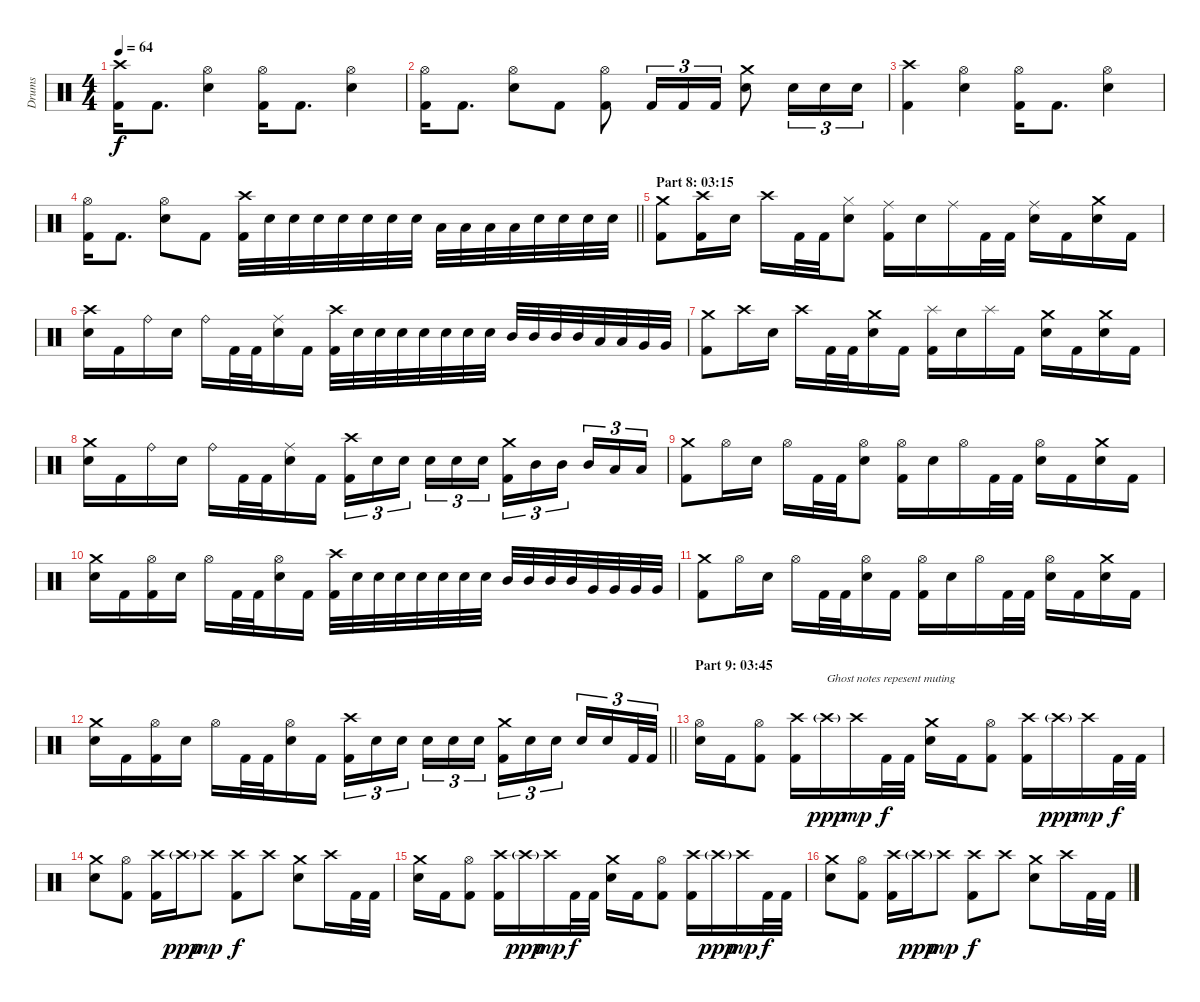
\track ("Drums" "Drums") {instrument percussion}
\staff {score}
\articulation defaults
\ts (4 4)
\tempo 64
\clef neutral
\ks c
("Crash high (hit)" "Kick (hit) 2").16{dy f} "Kick (hit) 2".8{d} ("Hi-Hat (open)" "Electric Snare (hit)").4 ("Hi-Hat (open)" "Kick (hit) 2").16 "Kick (hit) 2".8{d} ("Hi-Hat (open)" "Electric Snare (hit)").4 |
("Hi-Hat (open)" "Kick (hit) 2").16 "Kick (hit) 2".8{d} ("Hi-Hat (open)" "Electric Snare (hit)").8 "Kick (hit) 2".8 ("Hi-Hat (open)" "Kick (hit) 2").8 "Kick (hit) 2".16{tu (3 2)} "Kick (hit) 2".16{tu (3 2)} "Kick (hit) 2".16{tu (3 2)} ("Crash medium (hit)" "Electric Snare (hit)").8 "Electric Snare (hit)".16{tu (3 2)} "Electric Snare (hit)".16{tu (3 2)} "Electric Snare (hit)".16{tu (3 2)} |
("Crash high (hit)" "Kick (hit) 2").4 ("Hi-Hat (open)" "Electric Snare (hit)").4 ("Hi-Hat (open)" "Kick (hit) 2").16 "Kick (hit) 2".8{d} ("Hi-Hat (open)" "Electric Snare (hit)").4 |
\barLineRight lightlight
("Hi-Hat (open)" "Kick (hit) 2").16 "Kick (hit) 2".8{d} ("Hi-Hat (open)" "Electric Snare (hit)").8 "Kick (hit) 2".8 ("Crash high (hit)" "Kick (hit) 2").32 "Electric Snare (hit)".32 "Electric Snare (hit)".32 "Electric Snare (hit)".32 "Electric Snare (hit)".32 "Electric Snare (hit)".32 "Electric Snare (hit)".32 "Electric Snare (hit)".32 "Low Tom (hit)".32 "Low Tom (hit)".32 "Low Tom (hit)".32 "Low Tom (hit)".32 "Electric Snare (hit)".32 "Electric Snare (hit)".32 "Electric Snare (hit)".32 "Electric Snare (hit)".32 |
\section ("" "Part 8: 03:15")
("Crash medium (hit)" "Kick (hit) 2").8 ("Crash high (hit)" "Kick (hit) 2").16 "Electric Snare (hit)".16 "Crash high (hit)".16 "Kick (hit) 2".32 "Kick (hit) 2".32 ("Hi-Hat (closed)" "Electric Snare (hit)").8 ("Ride (middle)" "Kick (hit) 2").16 "Electric Snare (hit)".16 "Ride (middle)".16 "Kick (hit) 2".32 "Kick (hit) 2".32 ("Ride (middle)" "Electric Snare (hit)").16 "Kick (hit) 2".16 ("Crash medium (hit)" "Electric Snare (hit)").16 "Kick (hit) 2".16 |
("Crash high (hit)" "Electric Snare (hit)").16 "Kick (hit) 2".16 "Ride (bell)".16 "Electric Snare (hit)".16 "Ride (bell)".16 "Kick (hit) 2".32 "Kick (hit) 2".32 ("Ride (middle)" "Electric Snare (hit)").16 "Kick (hit) 2".16 ("Crash high (hit)" "Kick (hit) 2").32 "Electric Snare (hit)".32 "Electric Snare (hit)".32 "Electric Snare (hit)".32 "Electric Snare (hit)".32 "Electric Snare (hit)".32 "Electric Snare (hit)".32 "Electric Snare (hit)".32 "Mid Tom (hit)".32 "Mid Tom (hit)".32 "Mid Tom (hit)".32 "Mid Tom (hit)".32 "Low Tom (hit)".32 "Low Tom (hit)".32 "Very Low Tom (hit)".32 "Very Low Tom (hit)".32 |
("Crash medium (hit)" "Kick (hit) 2").8 "Crash high (hit)".16 "Electric Snare (hit)".16 "Crash high (hit)".16 "Kick (hit) 2".32 "Kick (hit) 2".32 ("Crash medium (hit)" "Electric Snare (hit)").16 "Kick (hit) 2".16 ("Splash (hit)" "Kick (hit) 2").16 "Electric Snare (hit)".16 "Splash (hit)".16 "Kick (hit) 2".16 ("Crash medium (hit)" "Electric Snare (hit)").16 "Kick (hit) 2".16 ("Crash medium (hit)" "Electric Snare (hit)").16 "Kick (hit) 2".16 |
("Crash medium (hit)" "Electric Snare (hit)").16 "Kick (hit) 2".16 "Ride (bell)".16 "Electric Snare (hit)".16 "Ride (bell)".16 "Kick (hit) 2".32 "Kick (hit) 2".32 ("Ride (middle)" "Electric Snare (hit)").16 "Kick (hit) 2".16 ("Crash high (hit)" "Kick (hit) 2").16{tu (3 2)} "Electric Snare (hit)".16{tu (3 2)} "Electric Snare (hit)".16{tu (3 2) beam splitsecondary} "Electric Snare (hit)".16{tu (3 2)} "Electric Snare (hit)".16{tu (3 2)} "Electric Snare (hit)".16{tu (3 2)} ("Crash medium (hit)" "Kick (hit) 2").16{tu (3 2)} "Mid Tom (hit)".16{tu (3 2)} "Mid Tom (hit)".16{tu (3 2) beam splitsecondary} "Mid Tom (hit)".16{tu (3 2)} "Low Tom (hit)".16{tu (3 2)} "Low Tom (hit)".16{tu (3 2)} |
("Crash medium (hit)" "Kick (hit) 2").8 "Hi-Hat (open)".16 "Electric Snare (hit)".16 "Hi-Hat (open)".16 "Kick (hit) 2".32 "Kick (hit) 2".32 ("Hi-Hat (open)" "Electric Snare (hit)").8 ("Hi-Hat (open)" "Kick (hit) 2").16 "Electric Snare (hit)".16 "Hi-Hat (open)".16 "Kick (hit) 2".32 "Kick (hit) 2".32 ("Hi-Hat (open)" "Electric Snare (hit)").16 "Kick (hit) 2".16 ("Crash medium (hit)" "Electric Snare (hit)").16 "Kick (hit) 2".16 |
("Crash medium (hit)" "Electric Snare (hit)").16 "Kick (hit) 2".16 ("Hi-Hat (open)" "Kick (hit) 2").16 "Electric Snare (hit)".16 "Hi-Hat (open)".16 "Kick (hit) 2".32 "Kick (hit) 2".32 ("Hi-Hat (open)" "Electric Snare (hit)").16 "Kick (hit) 2".16 ("Crash high (hit)" "Kick (hit) 2").32 "Electric Snare (hit)".32 "Electric Snare (hit)".32 "Electric Snare (hit)".32 "Electric Snare (hit)".32 "Electric Snare (hit)".32 "Electric Snare (hit)".32 "Electric Snare (hit)".32 "Mid Tom (hit)".32 "Mid Tom (hit)".32 "Mid Tom (hit)".32 "Mid Tom (hit)".32 "Very Low Tom (hit)".32 "Very Low Tom (hit)".32 "Very Low Tom (hit)".32 "Very Low Tom (hit)".32 |
("Crash medium (hit)" "Kick (hit) 2").8 "Hi-Hat (open)".16 "Electric Snare (hit)".16 "Hi-Hat (open)".16 "Kick (hit) 2".32 "Kick (hit) 2".32 ("Hi-Hat (open)" "Electric Snare (hit)").16 "Kick (hit) 2".16 ("Hi-Hat (open)" "Kick (hit) 2").16 "Electric Snare (hit)".16 "Hi-Hat (open)".16 "Kick (hit) 2".32 "Kick (hit) 2".32 ("Hi-Hat (open)" "Electric Snare (hit)").16 "Kick (hit) 2".16 ("Crash medium (hit)" "Electric Snare (hit)").16 "Kick (hit) 2".16 |
\barLineRight lightlight
("Crash medium (hit)" "Electric Snare (hit)").16 "Kick (hit) 2".16 ("Hi-Hat (open)" "Kick (hit) 2").16 "Electric Snare (hit)".16 "Hi-Hat (open)".16 "Kick (hit) 2".32 "Kick (hit) 2".32 ("Hi-Hat (open)" "Electric Snare (hit)").16 "Kick (hit) 2".16 ("Crash high (hit)" "Kick (hit) 2").16{tu (3 2)} "Electric Snare (hit)".16{tu (3 2)} "Electric Snare (hit)".16{tu (3 2) beam splitsecondary} "Electric Snare (hit)".16{tu (3 2)} "Electric Snare (hit)".16{tu (3 2)} "Electric Snare (hit)".16{tu (3 2)} ("Crash medium (hit)" "Kick (hit) 2").16{tu (3 2)} "Electric Snare (hit)".16{tu (3 2)} "Electric Snare (hit)".16{tu (3 2) beam splitsecondary} "Electric Snare (hit)".16{tu (3 2)} "Electric Snare (hit)".16{tu (3 2)} "Kick (hit) 2".32{tu (3 2)} "Kick (hit) 2".32{tu (3 2)} |
\section ("" "Part 9: 03:45")
("Hi-Hat (open)" "Electric Snare (hit)").16 "Kick (hit) 2".16 ("Hi-Hat (open)" "Kick (hit) 2").8 ("Crash high (hit)" "Kick (hit) 2").16 "Crash high (hit)"{g}.16{txt "Ghost notes repesent muting" dy ppp} "Crash high (hit)".16{dy mp} "Kick (hit) 2".32{dy f} "Kick (hit) 2".32 ("Crash medium (hit)" "Electric Snare (hit)").16 "Kick (hit) 2".16 ("Hi-Hat (open)" "Kick (hit) 2").8 ("Crash high (hit)" "Kick (hit) 2").16 "Crash high (hit)"{g}.16{dy ppp} "Crash high (hit)".16{dy mp} "Kick (hit) 2".32{dy f} "Kick (hit) 2".32 |
("Crash medium (hit)" "Electric Snare (hit)").8 ("Hi-Hat (open)" "Kick (hit) 2").8 ("Crash high (hit)" "Kick (hit) 2").16 "Crash high (hit)"{g}.16{dy ppp} "Crash high (hit)".8{dy mp} ("Crash high (hit)" "Kick (hit) 2").8{dy f} "Crash high (hit)".8 ("Crash medium (hit)" "Electric Snare (hit)").8 "Crash high (hit)".16 "Kick (hit) 2".32 "Kick (hit) 2".32 |
("Crash medium (hit)" "Electric Snare (hit)").16 "Kick (hit) 2".16 ("Hi-Hat (open)" "Kick (hit) 2").8 ("Crash high (hit)" "Kick (hit) 2").16 "Crash high (hit)"{g}.16{dy ppp} "Crash high (hit)".16{dy mp} "Kick (hit) 2".32{dy f} "Kick (hit) 2".32 ("Crash medium (hit)" "Electric Snare (hit)").16 "Kick (hit) 2".16 ("Hi-Hat (open)" "Kick (hit) 2").8 ("Crash high (hit)" "Kick (hit) 2").16 "Crash high (hit)"{g}.16{dy ppp} "Crash high (hit)".16{dy mp} "Kick (hit) 2".32{dy f} "Kick (hit) 2".32 |
("Crash medium (hit)" "Electric Snare (hit)").8 ("Hi-Hat (open)" "Kick (hit) 2").8 ("Crash high (hit)" "Kick (hit) 2").16 "Crash high (hit)"{g}.16{dy ppp} "Crash high (hit)".8{dy mp} ("Crash high (hit)" "Kick (hit) 2").8{dy f} "Crash high (hit)".8 ("Crash medium (hit)" "Electric Snare (hit)").8 "Crash high (hit)".16 "Kick (hit) 2".32 "Kick (hit) 2".32
